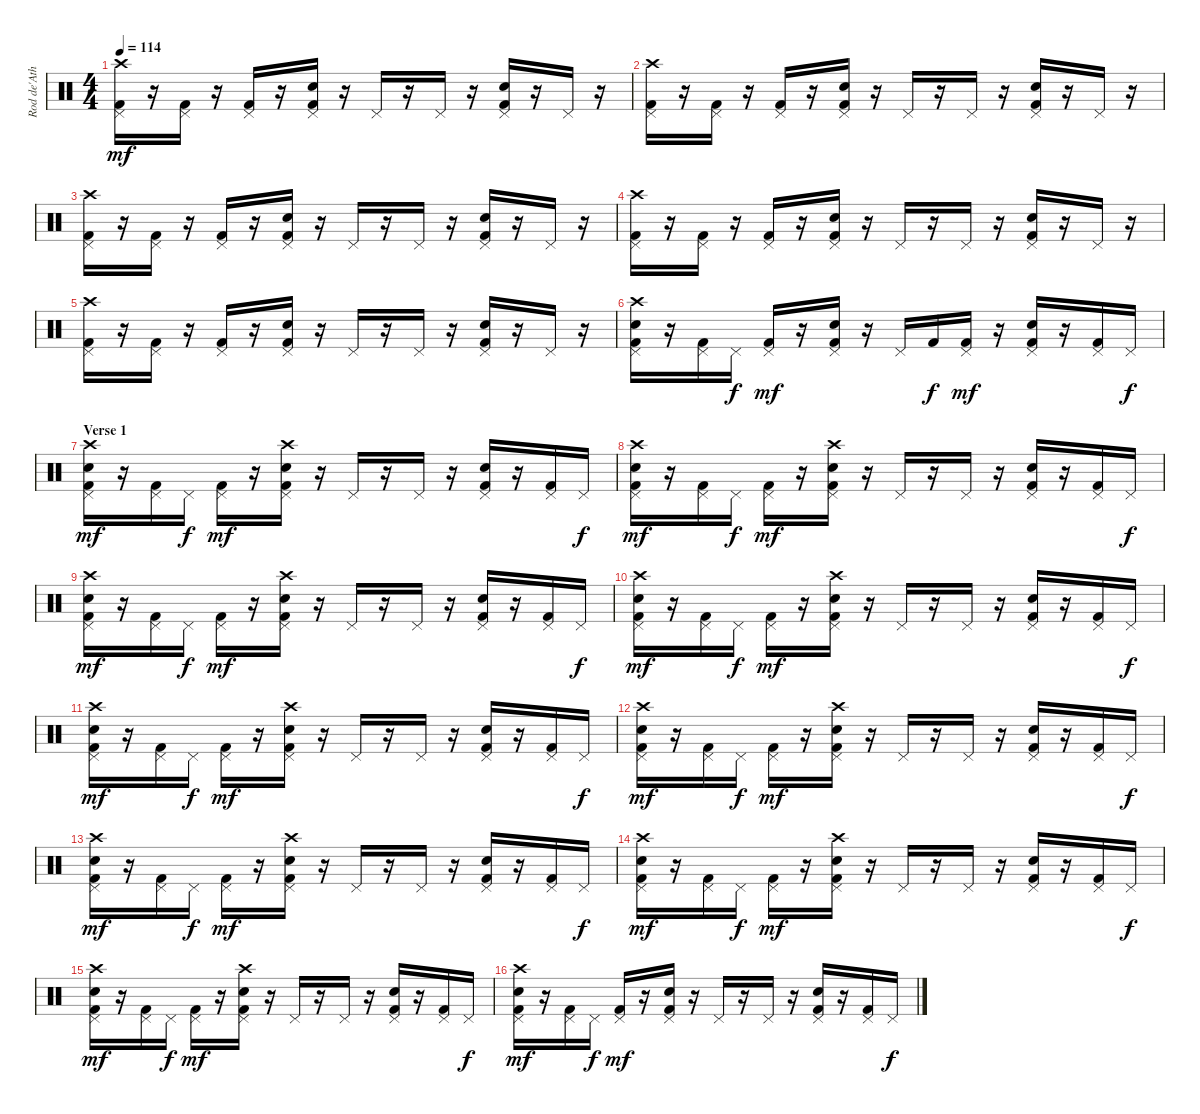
\track ("Rod de'Ath" "Rod de'Ath") {instrument percussion}
\staff {score}
\articulation defaults
\ts (4 4)
\tempo 114
\clef neutral
\ks c
("Crash high (hit)" "Pedal Hi-Hat (hit)" "Kick (hit) 2").16{dy mf} r.16 ("Pedal Hi-Hat (hit)" "Kick (hit) 2").16 r.16 ("Pedal Hi-Hat (hit)" "Kick (hit) 2").16 r.16 ("Snare (hit) 2" "Pedal Hi-Hat (hit)" "Kick (hit) 2").16 r.16 "Pedal Hi-Hat (hit)".16 r.16 "Pedal Hi-Hat (hit)".16 r.16 ("Snare (hit) 2" "Pedal Hi-Hat (hit)" "Kick (hit) 2").16 r.16 "Pedal Hi-Hat (hit)".16 r.16 |
("Crash high (hit)" "Pedal Hi-Hat (hit)" "Kick (hit) 2").16 r.16 ("Pedal Hi-Hat (hit)" "Kick (hit) 2").16 r.16 ("Pedal Hi-Hat (hit)" "Kick (hit) 2").16 r.16 ("Snare (hit) 2" "Pedal Hi-Hat (hit)" "Kick (hit) 2").16 r.16 "Pedal Hi-Hat (hit)".16 r.16 "Pedal Hi-Hat (hit)".16 r.16 ("Snare (hit) 2" "Pedal Hi-Hat (hit)" "Kick (hit) 2").16 r.16 "Pedal Hi-Hat (hit)".16 r.16 |
("Crash high (hit)" "Pedal Hi-Hat (hit)" "Kick (hit) 2").16 r.16 ("Pedal Hi-Hat (hit)" "Kick (hit) 2").16 r.16 ("Pedal Hi-Hat (hit)" "Kick (hit) 2").16 r.16 ("Snare (hit) 2" "Pedal Hi-Hat (hit)" "Kick (hit) 2").16 r.16 "Pedal Hi-Hat (hit)".16 r.16 "Pedal Hi-Hat (hit)".16 r.16 ("Snare (hit) 2" "Pedal Hi-Hat (hit)" "Kick (hit) 2").16 r.16 "Pedal Hi-Hat (hit)".16 r.16 |
("Crash high (hit)" "Pedal Hi-Hat (hit)" "Kick (hit) 2").16 r.16 ("Pedal Hi-Hat (hit)" "Kick (hit) 2").16 r.16 ("Pedal Hi-Hat (hit)" "Kick (hit) 2").16 r.16 ("Snare (hit) 2" "Pedal Hi-Hat (hit)" "Kick (hit) 2").16 r.16 "Pedal Hi-Hat (hit)".16 r.16 "Pedal Hi-Hat (hit)".16 r.16 ("Snare (hit) 2" "Pedal Hi-Hat (hit)" "Kick (hit) 2").16 r.16 "Pedal Hi-Hat (hit)".16 r.16 |
("Crash high (hit)" "Pedal Hi-Hat (hit)" "Kick (hit) 2").16 r.16 ("Pedal Hi-Hat (hit)" "Kick (hit) 2").16 r.16 ("Pedal Hi-Hat (hit)" "Kick (hit) 2").16 r.16 ("Snare (hit) 2" "Pedal Hi-Hat (hit)" "Kick (hit) 2").16 r.16 "Pedal Hi-Hat (hit)".16 r.16 "Pedal Hi-Hat (hit)".16 r.16 ("Snare (hit) 2" "Pedal Hi-Hat (hit)" "Kick (hit) 2").16 r.16 "Pedal Hi-Hat (hit)".16 r.16 |
("Crash high (hit)" "Snare (hit) 2" "Pedal Hi-Hat (hit)" "Kick (hit) 2").16 r.16 ("Pedal Hi-Hat (hit)" "Kick (hit) 2").16 "Pedal Hi-Hat (hit)".16{dy f} ("Pedal Hi-Hat (hit)" "Kick (hit) 2").16{dy mf} r.16 ("Snare (hit) 2" "Pedal Hi-Hat (hit)" "Kick (hit) 2").16 r.16 "Pedal Hi-Hat (hit)".16 "Kick (hit) 2".16{dy f} ("Pedal Hi-Hat (hit)" "Kick (hit) 2").16{dy mf} r.16 ("Snare (hit) 2" "Pedal Hi-Hat (hit)" "Kick (hit) 2").16 r.16 ("Pedal Hi-Hat (hit)" "Kick (hit) 2").16 "Pedal Hi-Hat (hit)".16{dy f} |
\section ("" "Verse 1")
("Crash high (hit)" "Snare (hit) 2" "Pedal Hi-Hat (hit)" "Kick (hit) 2").16{dy mf} r.16 ("Pedal Hi-Hat (hit)" "Kick (hit) 2").16 "Pedal Hi-Hat (hit)".16{dy f} ("Pedal Hi-Hat (hit)" "Kick (hit) 2").16{dy mf} r.16 ("Crash high (hit)" "Snare (hit) 2" "Pedal Hi-Hat (hit)" "Kick (hit) 2").16 r.16 "Pedal Hi-Hat (hit)".16 r.16 "Pedal Hi-Hat (hit)".16 r.16 ("Snare (hit) 2" "Pedal Hi-Hat (hit)" "Kick (hit) 2").16 r.16 ("Pedal Hi-Hat (hit)" "Kick (hit) 2").16 "Pedal Hi-Hat (hit)".16{dy f} |
("Crash high (hit)" "Snare (hit) 2" "Pedal Hi-Hat (hit)" "Kick (hit) 2").16{dy mf} r.16 ("Pedal Hi-Hat (hit)" "Kick (hit) 2").16 "Pedal Hi-Hat (hit)".16{dy f} ("Pedal Hi-Hat (hit)" "Kick (hit) 2").16{dy mf} r.16 ("Crash high (hit)" "Snare (hit) 2" "Pedal Hi-Hat (hit)" "Kick (hit) 2").16 r.16 "Pedal Hi-Hat (hit)".16 r.16 "Pedal Hi-Hat (hit)".16 r.16 ("Snare (hit) 2" "Pedal Hi-Hat (hit)" "Kick (hit) 2").16 r.16 ("Pedal Hi-Hat (hit)" "Kick (hit) 2").16 "Pedal Hi-Hat (hit)".16{dy f} |
("Crash high (hit)" "Snare (hit) 2" "Pedal Hi-Hat (hit)" "Kick (hit) 2").16{dy mf} r.16 ("Pedal Hi-Hat (hit)" "Kick (hit) 2").16 "Pedal Hi-Hat (hit)".16{dy f} ("Pedal Hi-Hat (hit)" "Kick (hit) 2").16{dy mf} r.16 ("Crash high (hit)" "Snare (hit) 2" "Pedal Hi-Hat (hit)" "Kick (hit) 2").16 r.16 "Pedal Hi-Hat (hit)".16 r.16 "Pedal Hi-Hat (hit)".16 r.16 ("Snare (hit) 2" "Pedal Hi-Hat (hit)" "Kick (hit) 2").16 r.16 ("Pedal Hi-Hat (hit)" "Kick (hit) 2").16 "Pedal Hi-Hat (hit)".16{dy f} |
("Crash high (hit)" "Snare (hit) 2" "Pedal Hi-Hat (hit)" "Kick (hit) 2").16{dy mf} r.16 ("Pedal Hi-Hat (hit)" "Kick (hit) 2").16 "Pedal Hi-Hat (hit)".16{dy f} ("Pedal Hi-Hat (hit)" "Kick (hit) 2").16{dy mf} r.16 ("Crash high (hit)" "Snare (hit) 2" "Pedal Hi-Hat (hit)" "Kick (hit) 2").16 r.16 "Pedal Hi-Hat (hit)".16 r.16 "Pedal Hi-Hat (hit)".16 r.16 ("Snare (hit) 2" "Pedal Hi-Hat (hit)" "Kick (hit) 2").16 r.16 ("Pedal Hi-Hat (hit)" "Kick (hit) 2").16 "Pedal Hi-Hat (hit)".16{dy f} |
("Crash high (hit)" "Snare (hit) 2" "Pedal Hi-Hat (hit)" "Kick (hit) 2").16{dy mf} r.16 ("Pedal Hi-Hat (hit)" "Kick (hit) 2").16 "Pedal Hi-Hat (hit)".16{dy f} ("Pedal Hi-Hat (hit)" "Kick (hit) 2").16{dy mf} r.16 ("Crash high (hit)" "Snare (hit) 2" "Pedal Hi-Hat (hit)" "Kick (hit) 2").16 r.16 "Pedal Hi-Hat (hit)".16 r.16 "Pedal Hi-Hat (hit)".16 r.16 ("Snare (hit) 2" "Pedal Hi-Hat (hit)" "Kick (hit) 2").16 r.16 ("Pedal Hi-Hat (hit)" "Kick (hit) 2").16 "Pedal Hi-Hat (hit)".16{dy f} |
("Crash high (hit)" "Snare (hit) 2" "Pedal Hi-Hat (hit)" "Kick (hit) 2").16{dy mf} r.16 ("Pedal Hi-Hat (hit)" "Kick (hit) 2").16 "Pedal Hi-Hat (hit)".16{dy f} ("Pedal Hi-Hat (hit)" "Kick (hit) 2").16{dy mf} r.16 ("Crash high (hit)" "Snare (hit) 2" "Pedal Hi-Hat (hit)" "Kick (hit) 2").16 r.16 "Pedal Hi-Hat (hit)".16 r.16 "Pedal Hi-Hat (hit)".16 r.16 ("Snare (hit) 2" "Pedal Hi-Hat (hit)" "Kick (hit) 2").16 r.16 ("Pedal Hi-Hat (hit)" "Kick (hit) 2").16 "Pedal Hi-Hat (hit)".16{dy f} |
("Crash high (hit)" "Snare (hit) 2" "Pedal Hi-Hat (hit)" "Kick (hit) 2").16{dy mf} r.16 ("Pedal Hi-Hat (hit)" "Kick (hit) 2").16 "Pedal Hi-Hat (hit)".16{dy f} ("Pedal Hi-Hat (hit)" "Kick (hit) 2").16{dy mf} r.16 ("Crash high (hit)" "Snare (hit) 2" "Pedal Hi-Hat (hit)" "Kick (hit) 2").16 r.16 "Pedal Hi-Hat (hit)".16 r.16 "Pedal Hi-Hat (hit)".16 r.16 ("Snare (hit) 2" "Pedal Hi-Hat (hit)" "Kick (hit) 2").16 r.16 ("Pedal Hi-Hat (hit)" "Kick (hit) 2").16 "Pedal Hi-Hat (hit)".16{dy f} |
("Crash high (hit)" "Snare (hit) 2" "Pedal Hi-Hat (hit)" "Kick (hit) 2").16{dy mf} r.16 ("Pedal Hi-Hat (hit)" "Kick (hit) 2").16 "Pedal Hi-Hat (hit)".16{dy f} ("Pedal Hi-Hat (hit)" "Kick (hit) 2").16{dy mf} r.16 ("Crash high (hit)" "Snare (hit) 2" "Pedal Hi-Hat (hit)" "Kick (hit) 2").16 r.16 "Pedal Hi-Hat (hit)".16 r.16 "Pedal Hi-Hat (hit)".16 r.16 ("Snare (hit) 2" "Pedal Hi-Hat (hit)" "Kick (hit) 2").16 r.16 ("Pedal Hi-Hat (hit)" "Kick (hit) 2").16 "Pedal Hi-Hat (hit)".16{dy f} |
("Crash high (hit)" "Snare (hit) 2" "Pedal Hi-Hat (hit)" "Kick (hit) 2").16{dy mf} r.16 ("Pedal Hi-Hat (hit)" "Kick (hit) 2").16 "Pedal Hi-Hat (hit)".16{dy f} ("Pedal Hi-Hat (hit)" "Kick (hit) 2").16{dy mf} r.16 ("Crash high (hit)" "Snare (hit) 2" "Pedal Hi-Hat (hit)" "Kick (hit) 2").16 r.16 "Pedal Hi-Hat (hit)".16 r.16 "Pedal Hi-Hat (hit)".16 r.16 ("Snare (hit) 2" "Pedal Hi-Hat (hit)" "Kick (hit) 2").16 r.16 ("Pedal Hi-Hat (hit)" "Kick (hit) 2").16 "Pedal Hi-Hat (hit)".16{dy f} |
("Crash high (hit)" "Snare (hit) 2" "Pedal Hi-Hat (hit)" "Kick (hit) 2").16{dy mf} r.16 ("Pedal Hi-Hat (hit)" "Kick (hit) 2").16 "Pedal Hi-Hat (hit)".16{dy f} ("Pedal Hi-Hat (hit)" "Kick (hit) 2").16{dy mf} r.16 ("Snare (hit) 2" "Pedal Hi-Hat (hit)" "Kick (hit) 2").16 r.16 "Pedal Hi-Hat (hit)".16 r.16 "Pedal Hi-Hat (hit)".16 r.16 ("Snare (hit) 2" "Pedal Hi-Hat (hit)" "Kick (hit) 2").16 r.16 ("Pedal Hi-Hat (hit)" "Kick (hit) 2").16 "Pedal Hi-Hat (hit)".16{dy f}
